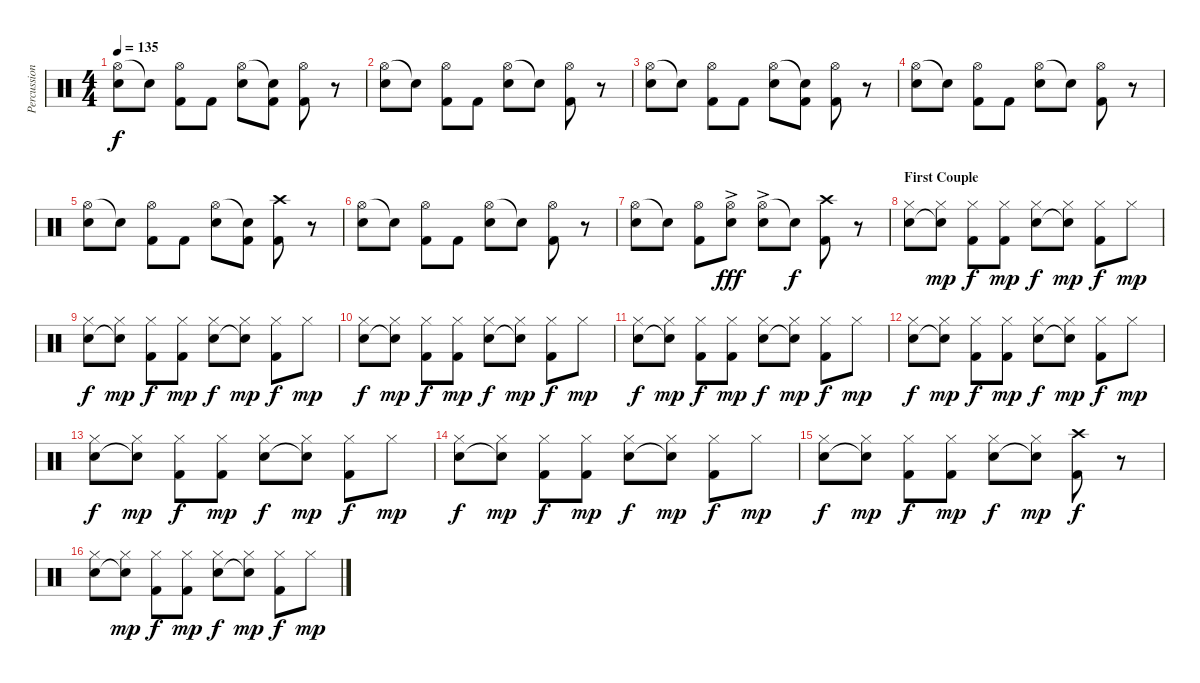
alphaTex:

\track ("Percussion" "Percussion") {instrument percussion}
\staff {score}
\articulation defaults
\ts (4 4)
\tempo 135
\clef neutral
\ks c
("Hi-Hat (open)" "Electric Snare (hit)").8{dy f} "Electric Snare (hit)"{t}.8 ("Hi-Hat (open)" "Kick (hit) 2").8 "Kick (hit) 2".8 ("Hi-Hat (open)" "Electric Snare (hit)").8 ("Electric Snare (hit)"{t} "Kick (hit) 2").8 ("Hi-Hat (open)" "Kick (hit) 2").8 r.8 |
("Hi-Hat (open)" "Electric Snare (hit)").8 "Electric Snare (hit)"{t}.8 ("Hi-Hat (open)" "Kick (hit) 2").8 "Kick (hit) 2".8 ("Hi-Hat (open)" "Electric Snare (hit)").8 "Electric Snare (hit)"{t}.8 ("Hi-Hat (open)" "Kick (hit) 2").8 r.8 |
("Hi-Hat (open)" "Electric Snare (hit)").8 "Electric Snare (hit)"{t}.8 ("Hi-Hat (open)" "Kick (hit) 2").8 "Kick (hit) 2".8 ("Hi-Hat (open)" "Electric Snare (hit)").8 ("Electric Snare (hit)"{t} "Kick (hit) 2").8 ("Hi-Hat (open)" "Kick (hit) 2").8 r.8 |
("Hi-Hat (open)" "Electric Snare (hit)").8 "Electric Snare (hit)"{t}.8 ("Hi-Hat (open)" "Kick (hit) 2").8 "Kick (hit) 2".8 ("Hi-Hat (open)" "Electric Snare (hit)").8 "Electric Snare (hit)"{t}.8 ("Hi-Hat (open)" "Kick (hit) 2").8 r.8 |
("Hi-Hat (open)" "Electric Snare (hit)").8 "Electric Snare (hit)"{t}.8 ("Hi-Hat (open)" "Kick (hit) 2").8 "Kick (hit) 2".8 ("Hi-Hat (open)" "Electric Snare (hit)").8 ("Electric Snare (hit)"{t} "Kick (hit) 2").8 ("Crash high (hit)" "Kick (hit) 2").8 r.8 |
("Hi-Hat (open)" "Electric Snare (hit)").8 "Electric Snare (hit)"{t}.8 ("Hi-Hat (open)" "Kick (hit) 2").8 "Kick (hit) 2".8 ("Hi-Hat (open)" "Electric Snare (hit)").8 "Electric Snare (hit)"{t}.8 ("Hi-Hat (open)" "Kick (hit) 2").8 r.8 |
("Hi-Hat (open)" "Electric Snare (hit)").8 "Electric Snare (hit)"{t}.8 ("Hi-Hat (open)" "Kick (hit) 2").8 ("Hi-Hat (open)"{ac} "Electric Snare (hit)").8{dy fff} ("Hi-Hat (open)"{ac} "Electric Snare (hit)").8 "Electric Snare (hit)"{t}.8{dy f} ("Crash high (hit)" "Kick (hit) 2").8 r.8 |
\section ("" "First Couple")
("Hi-Hat (closed)" "Electric Snare (hit)").8 ("Hi-Hat (closed)" "Electric Snare (hit)"{t}).8{dy mp} ("Hi-Hat (closed)" "Kick (hit) 2").8{dy f} ("Hi-Hat (closed)" "Kick (hit) 2").8{dy mp} ("Hi-Hat (closed)" "Electric Snare (hit)").8{dy f} ("Hi-Hat (closed)" "Electric Snare (hit)"{t}).8{dy mp} ("Hi-Hat (closed)" "Kick (hit) 2").8{dy f} "Hi-Hat (closed)".8{dy mp} |
("Hi-Hat (closed)" "Electric Snare (hit)").8{dy f} ("Hi-Hat (closed)" "Electric Snare (hit)"{t}).8{dy mp} ("Hi-Hat (closed)" "Kick (hit) 2").8{dy f} ("Hi-Hat (closed)" "Kick (hit) 2").8{dy mp} ("Hi-Hat (closed)" "Electric Snare (hit)").8{dy f} ("Hi-Hat (closed)" "Electric Snare (hit)"{t}).8{dy mp} ("Hi-Hat (closed)" "Kick (hit) 2").8{dy f} "Hi-Hat (closed)".8{dy mp} |
("Hi-Hat (closed)" "Electric Snare (hit)").8{dy f} ("Hi-Hat (closed)" "Electric Snare (hit)"{t}).8{dy mp} ("Hi-Hat (closed)" "Kick (hit) 2").8{dy f} ("Hi-Hat (closed)" "Kick (hit) 2").8{dy mp} ("Hi-Hat (closed)" "Electric Snare (hit)").8{dy f} ("Hi-Hat (closed)" "Electric Snare (hit)"{t}).8{dy mp} ("Hi-Hat (closed)" "Kick (hit) 2").8{dy f} "Hi-Hat (closed)".8{dy mp} |
("Hi-Hat (closed)" "Electric Snare (hit)").8{dy f} ("Hi-Hat (closed)" "Electric Snare (hit)"{t}).8{dy mp} ("Hi-Hat (closed)" "Kick (hit) 2").8{dy f} ("Hi-Hat (closed)" "Kick (hit) 2").8{dy mp} ("Hi-Hat (closed)" "Electric Snare (hit)").8{dy f} ("Hi-Hat (closed)" "Electric Snare (hit)"{t}).8{dy mp} ("Hi-Hat (closed)" "Kick (hit) 2").8{dy f} "Hi-Hat (closed)".8{dy mp} |
("Hi-Hat (closed)" "Electric Snare (hit)").8{dy f} ("Hi-Hat (closed)" "Electric Snare (hit)"{t}).8{dy mp} ("Hi-Hat (closed)" "Kick (hit) 2").8{dy f} ("Hi-Hat (closed)" "Kick (hit) 2").8{dy mp} ("Hi-Hat (closed)" "Electric Snare (hit)").8{dy f} ("Hi-Hat (closed)" "Electric Snare (hit)"{t}).8{dy mp} ("Hi-Hat (closed)" "Kick (hit) 2").8{dy f} "Hi-Hat (closed)".8{dy mp} |
("Hi-Hat (closed)" "Electric Snare (hit)").8{dy f} ("Hi-Hat (closed)" "Electric Snare (hit)"{t}).8{dy mp} ("Hi-Hat (closed)" "Kick (hit) 2").8{dy f} ("Hi-Hat (closed)" "Kick (hit) 2").8{dy mp} ("Hi-Hat (closed)" "Electric Snare (hit)").8{dy f} ("Hi-Hat (closed)" "Electric Snare (hit)"{t}).8{dy mp} ("Hi-Hat (closed)" "Kick (hit) 2").8{dy f} "Hi-Hat (closed)".8{dy mp} |
("Hi-Hat (closed)" "Electric Snare (hit)").8{dy f} ("Hi-Hat (closed)" "Electric Snare (hit)"{t}).8{dy mp} ("Hi-Hat (closed)" "Kick (hit) 2").8{dy f} ("Hi-Hat (closed)" "Kick (hit) 2").8{dy mp} ("Hi-Hat (closed)" "Electric Snare (hit)").8{dy f} ("Hi-Hat (closed)" "Electric Snare (hit)"{t}).8{dy mp} ("Hi-Hat (closed)" "Kick (hit) 2").8{dy f} "Hi-Hat (closed)".8{dy mp} |
("Hi-Hat (closed)" "Electric Snare (hit)").8{dy f} ("Hi-Hat (closed)" "Electric Snare (hit)"{t}).8{dy mp} ("Hi-Hat (closed)" "Kick (hit) 2").8{dy f} ("Hi-Hat (closed)" "Kick (hit) 2").8{dy mp} ("Hi-Hat (closed)" "Electric Snare (hit)").8{dy f} ("Hi-Hat (closed)" "Electric Snare (hit)"{t}).8{dy mp} ("Crash high (hit)" "Kick (hit) 2").8{dy f} r.8 |
("Hi-Hat (closed)" "Electric Snare (hit)").8 ("Hi-Hat (closed)" "Electric Snare (hit)"{t}).8{dy mp} ("Hi-Hat (closed)" "Kick (hit) 2").8{dy f} ("Hi-Hat (closed)" "Kick (hit) 2").8{dy mp} ("Hi-Hat (closed)" "Electric Snare (hit)").8{dy f} ("Hi-Hat (closed)" "Electric Snare (hit)"{t}).8{dy mp} ("Hi-Hat (closed)" "Kick (hit) 2").8{dy f} "Hi-Hat (closed)".8{dy mp}
